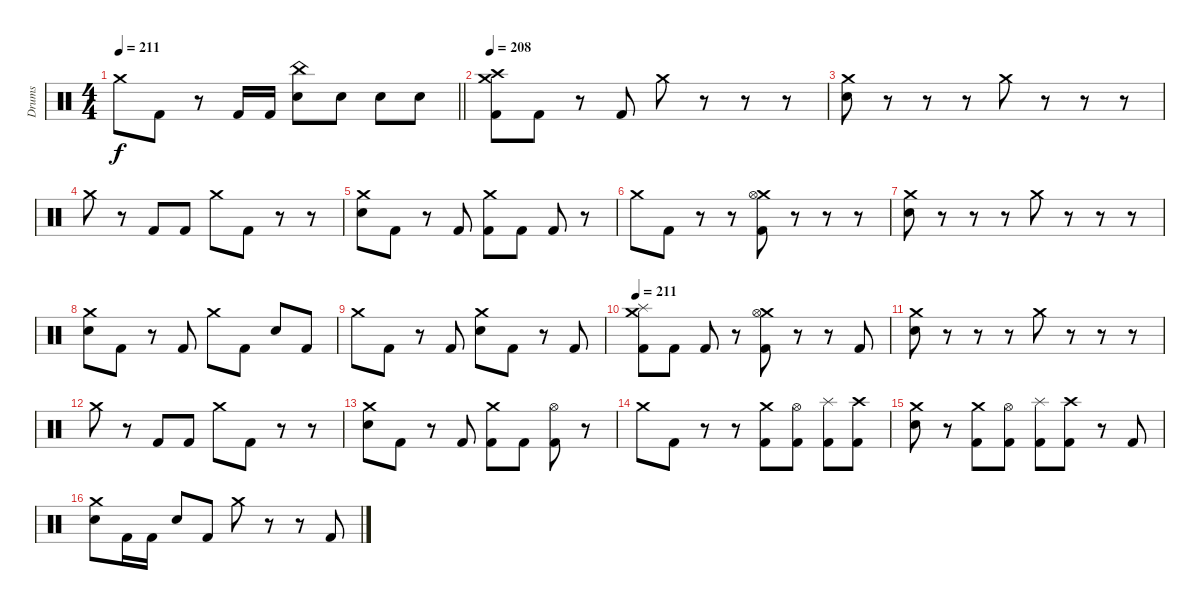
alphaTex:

\track ("Drums" "Drums") {instrument percussion}
\staff {score}
\articulation defaults
\ts (4 4)
\tempo 211
\clef neutral
\barLineRight lightlight
\ks c "Crash medium (hit)".8{dy f} "Kick (hit) 2".8
r.8 "Kick (hit) 2".16 "Kick (hit) 2".16 ("China (hit)" "Electric Snare (hit)").8 "Electric Snare (hit)".8 "Electric Snare (hit)".8 "Electric Snare (hit)".8 |
\section ("" "")
\tempo 208
("Crash high (hit)" "Crash medium (hit)" "Kick (hit) 2").8 "Kick (hit) 2".8 r.8 "Kick (hit) 2".8 "Crash medium (hit)".8 r.8 r.8 r.8 |
("Crash medium (hit)" "Electric Snare (hit)").8 r.8 r.8 r.8 "Crash medium (hit)".8 r.8 r.8 r.8 |
"Crash medium (hit)".8 r.8 "Kick (hit) 2".8 "Kick (hit) 2".8 "Crash medium (hit)".8 "Kick (hit) 2".8 r.8 r.8 |
("Crash medium (hit)" "Electric Snare (hit)").8 "Kick (hit) 2".8 r.8 "Kick (hit) 2".8 ("Crash medium (hit)" "Kick (hit) 2").8 "Kick (hit) 2".8 "Kick (hit) 2".8 r.8 |
"Crash medium (hit)".8 "Kick (hit) 2".8 r.8 r.8 ("Crash medium (hit)" "Hi-Hat (open)" "Kick (hit) 2").8 r.8 r.8 r.8 |
("Crash medium (hit)" "Electric Snare (hit)").8 r.8 r.8 r.8 "Crash medium (hit)".8 r.8 r.8 r.8 |
("Crash medium (hit)" "Electric Snare (hit)").8 "Kick (hit) 2".8 r.8 "Kick (hit) 2".8 "Crash medium (hit)".8 "Kick (hit) 2".8 "Electric Snare (hit)".8 "Kick (hit) 2".8 |
"Crash medium (hit)".8 "Kick (hit) 2".8 r.8 "Kick (hit) 2".8 ("Crash medium (hit)" "Electric Snare (hit)").8 "Kick (hit) 2".8 r.8 "Kick (hit) 2".8 |
\tempo 211
("Crash medium (hit)" "Splash (hit)" "Kick (hit) 2").8 "Kick (hit) 2".8 "Kick (hit) 2".8 r.8 ("Crash medium (hit)" "Hi-Hat (open)" "Kick (hit) 2").8 r.8 r.8 "Kick (hit) 2".8 |
("Crash medium (hit)" "Electric Snare (hit)").8 r.8 r.8 r.8 "Crash medium (hit)".8 r.8 r.8 r.8 |
"Crash medium (hit)".8 r.8 "Kick (hit) 2".8 "Kick (hit) 2".8 "Crash medium (hit)".8 "Kick (hit) 2".8 r.8 r.8 |
("Crash medium (hit)" "Electric Snare (hit)").8 "Kick (hit) 2".8 r.8 "Kick (hit) 2".8 ("Crash medium (hit)" "Kick (hit) 2").8 "Kick (hit) 2".8 ("Hi-Hat (open)" "Kick (hit) 2").8 r.8 |
"Crash medium (hit)".8 "Kick (hit) 2".8 r.8 r.8 ("Crash medium (hit)" "Kick (hit) 2").8 ("Hi-Hat (open)" "Kick (hit) 2").8 ("Splash (hit)" "Kick (hit) 2").8 ("Crash high (hit)" "Kick (hit) 2").8 |
("Crash medium (hit)" "Electric Snare (hit)").8 r.8 ("Crash medium (hit)" "Kick (hit) 2").8 ("Hi-Hat (open)" "Kick (hit) 2").8 ("Splash (hit)" "Kick (hit) 2").8 ("Crash high (hit)" "Kick (hit) 2").8 r.8 "Kick (hit) 2".8 |
("Crash medium (hit)" "Electric Snare (hit)").8 "Kick (hit) 2".16 "Kick (hit) 2".16 "Electric Snare (hit)".8 "Kick (hit) 2".8 "Crash medium (hit)".8 r.8 r.8 "Kick (hit) 2".8
